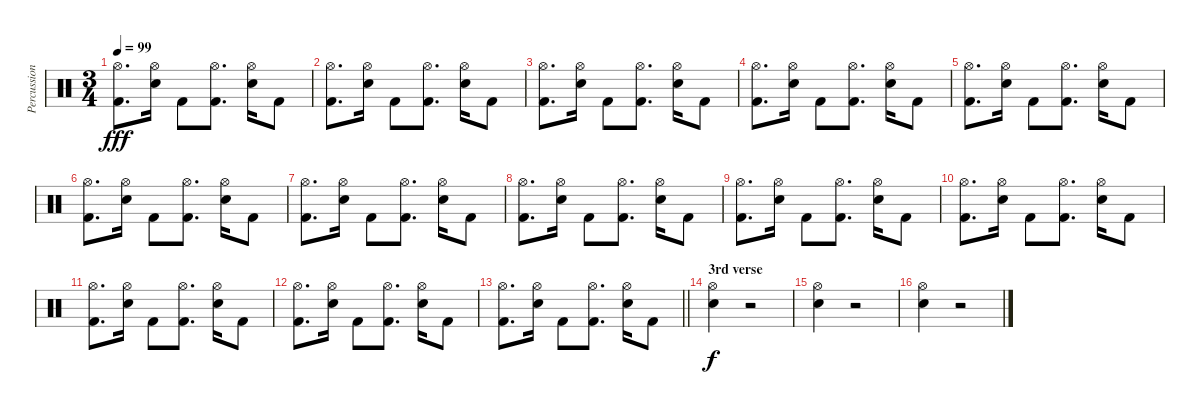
\track ("Percussion" "Percussion") {instrument percussion}
\staff {score}
\articulation defaults
\ts (3 4)
\tempo 99
\clef neutral
\ks c
("Hi-Hat (open)" "Kick (hit) 2").8{d dy fff} ("Hi-Hat (open)" "Electric Snare (hit)").16 "Kick (hit) 2".8 ("Hi-Hat (open)" "Kick (hit) 2").8{d} ("Hi-Hat (open)" "Electric Snare (hit)").16 "Kick (hit) 2".8 |
("Hi-Hat (open)" "Kick (hit) 2").8{d} ("Hi-Hat (open)" "Electric Snare (hit)").16 "Kick (hit) 2".8 ("Hi-Hat (open)" "Kick (hit) 2").8{d} ("Hi-Hat (open)" "Electric Snare (hit)").16 "Kick (hit) 2".8 |
("Hi-Hat (open)" "Kick (hit) 2").8{d} ("Hi-Hat (open)" "Electric Snare (hit)").16 "Kick (hit) 2".8 ("Hi-Hat (open)" "Kick (hit) 2").8{d} ("Hi-Hat (open)" "Electric Snare (hit)").16 "Kick (hit) 2".8 |
("Hi-Hat (open)" "Kick (hit) 2").8{d} ("Hi-Hat (open)" "Electric Snare (hit)").16 "Kick (hit) 2".8 ("Hi-Hat (open)" "Kick (hit) 2").8{d} ("Hi-Hat (open)" "Electric Snare (hit)").16 "Kick (hit) 2".8 |
("Hi-Hat (open)" "Kick (hit) 2").8{d} ("Hi-Hat (open)" "Electric Snare (hit)").16 "Kick (hit) 2".8 ("Hi-Hat (open)" "Kick (hit) 2").8{d} ("Hi-Hat (open)" "Electric Snare (hit)").16 "Kick (hit) 2".8 |
("Hi-Hat (open)" "Kick (hit) 2").8{d} ("Hi-Hat (open)" "Electric Snare (hit)").16 "Kick (hit) 2".8 ("Hi-Hat (open)" "Kick (hit) 2").8{d} ("Hi-Hat (open)" "Electric Snare (hit)").16 "Kick (hit) 2".8 |
("Hi-Hat (open)" "Kick (hit) 2").8{d} ("Hi-Hat (open)" "Electric Snare (hit)").16 "Kick (hit) 2".8 ("Hi-Hat (open)" "Kick (hit) 2").8{d} ("Hi-Hat (open)" "Electric Snare (hit)").16 "Kick (hit) 2".8 |
("Hi-Hat (open)" "Kick (hit) 2").8{d} ("Hi-Hat (open)" "Electric Snare (hit)").16 "Kick (hit) 2".8 ("Hi-Hat (open)" "Kick (hit) 2").8{d} ("Hi-Hat (open)" "Electric Snare (hit)").16 "Kick (hit) 2".8 |
("Hi-Hat (open)" "Kick (hit) 2").8{d} ("Hi-Hat (open)" "Electric Snare (hit)").16 "Kick (hit) 2".8 ("Hi-Hat (open)" "Kick (hit) 2").8{d} ("Hi-Hat (open)" "Electric Snare (hit)").16 "Kick (hit) 2".8 |
("Hi-Hat (open)" "Kick (hit) 2").8{d} ("Hi-Hat (open)" "Electric Snare (hit)").16 "Kick (hit) 2".8 ("Hi-Hat (open)" "Kick (hit) 2").8{d} ("Hi-Hat (open)" "Electric Snare (hit)").16 "Kick (hit) 2".8 |
("Hi-Hat (open)" "Kick (hit) 2").8{d} ("Hi-Hat (open)" "Electric Snare (hit)").16 "Kick (hit) 2".8 ("Hi-Hat (open)" "Kick (hit) 2").8{d} ("Hi-Hat (open)" "Electric Snare (hit)").16 "Kick (hit) 2".8 |
("Hi-Hat (open)" "Kick (hit) 2").8{d} ("Hi-Hat (open)" "Electric Snare (hit)").16 "Kick (hit) 2".8 ("Hi-Hat (open)" "Kick (hit) 2").8{d} ("Hi-Hat (open)" "Electric Snare (hit)").16 "Kick (hit) 2".8 |
\barLineRight lightlight
("Hi-Hat (open)" "Kick (hit) 2").8{d} ("Hi-Hat (open)" "Electric Snare (hit)").16 "Kick (hit) 2".8 ("Hi-Hat (open)" "Kick (hit) 2").8{d} ("Hi-Hat (open)" "Electric Snare (hit)").16 "Kick (hit) 2".8 |
\section ("" "3rd verse")
("Hi-Hat (open)" "Electric Snare (hit)").4{dy f} r.2 |
("Hi-Hat (open)" "Electric Snare (hit)").4 r.2 |
("Hi-Hat (open)" "Electric Snare (hit)").4 r.2
